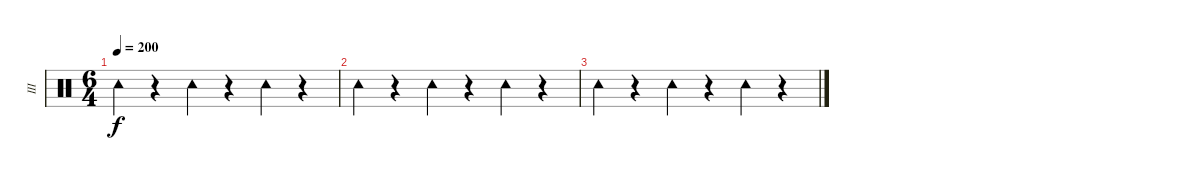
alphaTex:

\track ("III" "III") {instrument percussion}
\staff {score}
\articulation defaults
\ts (6 4)
\tempo 200
\clef neutral
\ks c "Tambourine (hit)".4{dy f}
r.4 "Tambourine (hit)".4 r.4 "Tambourine (hit)".4 r.4 |
"Tambourine (hit)".4 r.4 "Tambourine (hit)".4 r.4 "Tambourine (hit)".4 r.4 |
"Tambourine (hit)".4 r.4 "Tambourine (hit)".4 r.4 "Tambourine (hit)".4 r.4
